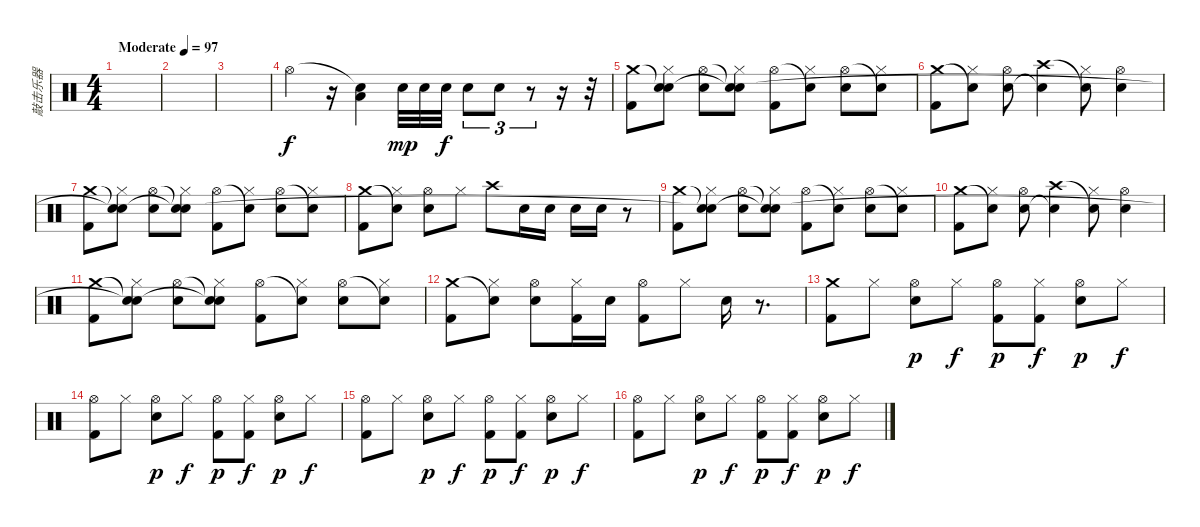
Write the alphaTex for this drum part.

\track ("敲击乐器" "敲击乐器") {instrument percussion}
\staff {score}
\articulation defaults
\ts (4 4)
\tempo (97 "Moderate")
\clef neutral
\ks c
|
|
|
"Hi-Hat (open)".4 r.16 ("Snare (hit)"{t} "Low Floor Tom (hit)").4{dy f} "Snare (hit) 2".32{dy mp} "Snare (hit) 2".32 "Snare (hit) 2".32{dy f} "Snare (hit) 2".8{tu (3 2)} "Snare (hit) 2".8{tu (3 2)} r.8{tu (3 2)} r.16 r.32 |
("Crash medium (hit)" "Kick (hit) 2").8 ("Snare (hit)"{t} "Hi-Hat (closed)" "Snare (hit)").8 ("Hi-Hat (open)" "Snare (hit) 2").8 ("Snare (hit)"{t} "Hi-Hat (closed)" "Snare (hit)"{t}).8 ("Hi-Hat (open)" "Kick (hit) 2").8 ("Snare (hit)"{t} "Hi-Hat (closed)").8 ("Hi-Hat (open)" "Snare (hit) 2").8 ("Snare (hit)"{t} "Hi-Hat (closed)").8 |
("Crash medium (hit)" "Kick (hit) 2").8 ("Snare (hit)"{t} "Hi-Hat (closed)").8 ("Hi-Hat (open)" "Snare (hit) 2").8 ("Crash high (hit)" "Snare (hit)"{t}).4 ("Snare (hit)"{t} "Hi-Hat (closed)").8 ("Hi-Hat (open)" "Snare (hit) 2").4 |
("Crash medium (hit)" "Kick (hit) 2").8 ("Snare (hit)"{t} "Hi-Hat (closed)" "Snare (hit)"{t}).8 ("Hi-Hat (open)" "Snare (hit) 2").8 ("Snare (hit)"{t} "Hi-Hat (closed)" "Snare (hit)"{t}).8 ("Hi-Hat (open)" "Kick (hit) 2").8 ("Snare (hit)"{t} "Hi-Hat (closed)").8 ("Hi-Hat (open)" "Snare (hit) 2").8 ("Snare (hit)"{t} "Hi-Hat (closed)").8 |
("Crash medium (hit)" "Kick (hit) 2").8 ("Snare (hit)"{t} "Hi-Hat (closed)").8 ("Hi-Hat (open)" "Snare (hit) 2").8 "Hi-Hat (closed)".8 "Crash high (hit)".8 "Snare (hit) 2".16 "Snare (hit) 2".16 "Snare (hit) 2".16 "Snare (hit) 2".16 r.8 |
("Crash medium (hit)" "Kick (hit) 2").8 ("Snare (hit)"{t} "Hi-Hat (closed)" "Snare (hit)"{t}).8 ("Hi-Hat (open)" "Snare (hit) 2").8 ("Snare (hit)"{t} "Hi-Hat (closed)" "Snare (hit)"{t}).8 ("Hi-Hat (open)" "Kick (hit) 2").8 ("Snare (hit)"{t} "Hi-Hat (closed)").8 ("Hi-Hat (open)" "Snare (hit) 2").8 ("Snare (hit)"{t} "Hi-Hat (closed)").8 |
("Crash medium (hit)" "Kick (hit) 2").8 ("Snare (hit)"{t} "Hi-Hat (closed)").8 ("Hi-Hat (open)" "Snare (hit) 2").8 ("Crash high (hit)" "Snare (hit)"{t}).4 ("Snare (hit)"{t} "Hi-Hat (closed)").8 ("Hi-Hat (open)" "Snare (hit) 2").4 |
("Crash medium (hit)" "Kick (hit) 2").8 ("Snare (hit)"{t} "Hi-Hat (closed)" "Snare (hit)"{t}).8 ("Hi-Hat (open)" "Snare (hit) 2").8 ("Snare (hit)"{t} "Hi-Hat (closed)" "Snare (hit)"{t}).8 ("Hi-Hat (open)" "Kick (hit) 2").8 ("Snare (hit)"{t} "Hi-Hat (closed)").8 ("Hi-Hat (open)" "Snare (hit) 2").8 ("Snare (hit)"{t} "Hi-Hat (closed)").8 |
("Crash medium (hit)" "Kick (hit) 2").8 ("Snare (hit)"{t} "Hi-Hat (closed)").8 ("Hi-Hat (open)" "Snare (hit) 2").8 ("Hi-Hat (closed)" "Kick (hit) 2").16 "Snare (hit) 2".16 ("Hi-Hat (open)" "Kick (hit) 2").8 "Hi-Hat (closed)".8 "Snare (hit) 2".16 r.8{d} |
("Crash medium (hit)" "Kick (hit) 2").8 "Hi-Hat (closed)".8 ("Hi-Hat (open)" "Snare (hit) 2").8{dy p} "Hi-Hat (closed)".8{dy f} ("Hi-Hat (open)" "Kick (hit) 2").8{dy p} ("Hi-Hat (closed)" "Kick (hit) 2").8{dy f} ("Hi-Hat (open)" "Snare (hit) 2").8{dy p} "Hi-Hat (closed)".8{dy f} |
("Hi-Hat (open)" "Kick (hit) 2").8 "Hi-Hat (closed)".8 ("Hi-Hat (open)" "Snare (hit) 2").8{dy p} "Hi-Hat (closed)".8{dy f} ("Hi-Hat (open)" "Kick (hit) 2").8{dy p} ("Hi-Hat (closed)" "Kick (hit) 2").8{dy f} ("Hi-Hat (open)" "Snare (hit) 2").8{dy p} "Hi-Hat (closed)".8{dy f} |
("Hi-Hat (open)" "Kick (hit) 2").8 "Hi-Hat (closed)".8 ("Hi-Hat (open)" "Snare (hit) 2").8{dy p} "Hi-Hat (closed)".8{dy f} ("Hi-Hat (open)" "Kick (hit) 2").8{dy p} ("Hi-Hat (closed)" "Kick (hit) 2").8{dy f} ("Hi-Hat (open)" "Snare (hit) 2").8{dy p} "Hi-Hat (closed)".8{dy f} |
("Hi-Hat (open)" "Kick (hit) 2").8 "Hi-Hat (closed)".8 ("Hi-Hat (open)" "Snare (hit) 2").8{dy p} "Hi-Hat (closed)".8{dy f} ("Hi-Hat (open)" "Kick (hit) 2").8{dy p} ("Hi-Hat (closed)" "Kick (hit) 2").8{dy f} ("Hi-Hat (open)" "Snare (hit) 2").8{dy p} "Hi-Hat (closed)".8{dy f}
